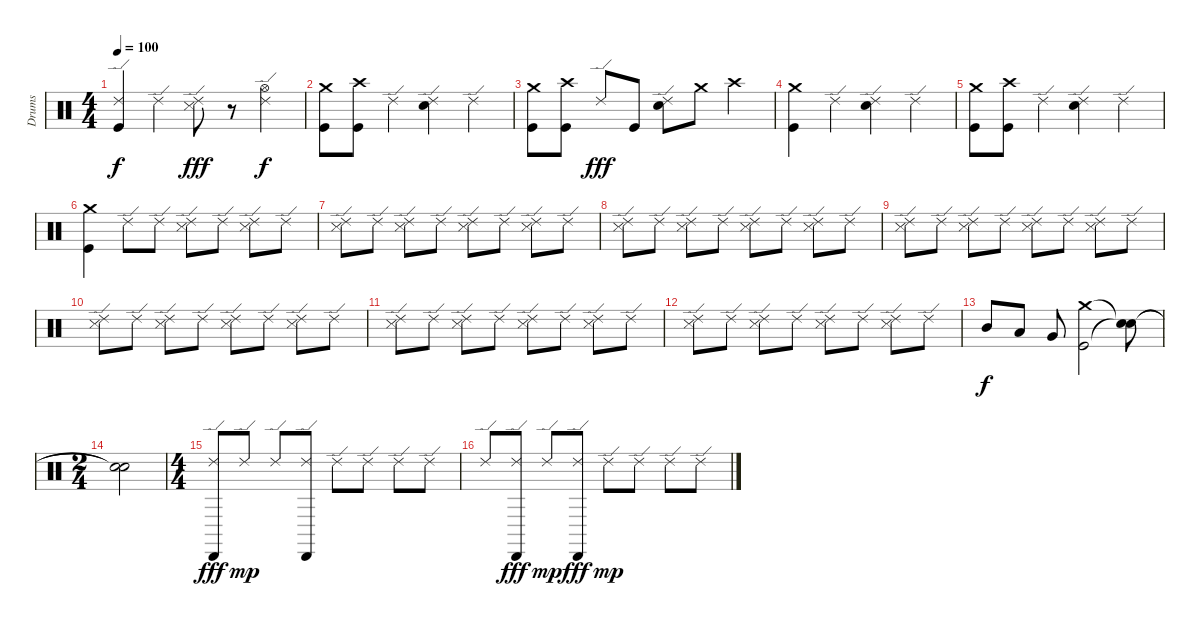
\track ("Drums" "Drums") {instrument percussion}
\staff {score}
\articulation defaults
\ts (4 4)
\tempo 100
\clef neutral
\ks c
("Kick (hit)" "Ride (edge) 2").4{dy f} "Ride (edge) 2".4 ("Snare (side stick) 3" "Ride (edge) 2").8{dy fff} r.8 ("Hi-Hat (open)" "Ride (edge) 2").4{dy f} |
("Kick (hit)" "Crash medium (hit)").8 ("Kick (hit)" "Crash high (hit)").8 "Ride (edge) 2".4 ("Electric Snare (hit)" "Ride (edge) 2").4 "Ride (edge) 2".4 |
("Kick (hit)" "Crash medium (hit)").8 ("Kick (hit)" "Crash high (hit)").8 "Ride (edge) 2".8{dy fff} "Kick (hit)".8 ("Ride (edge) 2" "Electric Snare (hit)").8 "Crash medium (hit)".8 "Crash high (hit)".4 |
("Kick (hit)" "Crash medium (hit)").4 "Ride (edge) 2".4 ("Electric Snare (hit)" "Ride (edge) 2").4 "Ride (edge) 2".4 |
("Kick (hit)" "Crash medium (hit)").8 ("Kick (hit)" "Crash high (hit)").8 "Ride (edge) 2".4 ("Electric Snare (hit)" "Ride (edge) 2").4 "Ride (edge) 2".4 |
("Kick (hit)" "Crash medium (hit)").4 "Ride (edge) 2".8 "Ride (edge) 2".8 ("Ride (edge) 2" "Snare (side stick) 3").8 "Ride (edge) 2".8 ("Snare (side stick) 3" "Ride (edge) 2").8 "Ride (edge) 2".8 |
("Ride (edge) 2" "Snare (side stick) 3").8 "Ride (edge) 2".8 ("Ride (edge) 2" "Snare (side stick) 3").8 "Ride (edge) 2".8 ("Ride (edge) 2" "Snare (side stick) 3").8 "Ride (edge) 2".8 ("Ride (edge) 2" "Snare (side stick) 3").8 "Ride (edge) 2".8 |
("Ride (edge) 2" "Snare (side stick) 3").8 "Ride (edge) 2".8 ("Ride (edge) 2" "Snare (side stick) 3").8 "Ride (edge) 2".8 ("Ride (edge) 2" "Snare (side stick) 3").8 "Ride (edge) 2".8 ("Ride (edge) 2" "Snare (side stick) 3").8 "Ride (edge) 2".8 |
("Ride (edge) 2" "Snare (side stick) 3").8 "Ride (edge) 2".8 ("Ride (edge) 2" "Snare (side stick) 3").8 "Ride (edge) 2".8 ("Ride (edge) 2" "Snare (side stick) 3").8 "Ride (edge) 2".8 ("Ride (edge) 2" "Snare (side stick) 3").8 "Ride (edge) 2".8 |
("Ride (edge) 2" "Snare (side stick) 3").8 "Ride (edge) 2".8 ("Ride (edge) 2" "Snare (side stick) 3").8 "Ride (edge) 2".8 ("Ride (edge) 2" "Snare (side stick) 3").8 "Ride (edge) 2".8 ("Ride (edge) 2" "Snare (side stick) 3").8 "Ride (edge) 2".8 |
("Ride (edge) 2" "Snare (side stick) 3").8 "Ride (edge) 2".8 ("Ride (edge) 2" "Snare (side stick) 3").8 "Ride (edge) 2".8 ("Ride (edge) 2" "Snare (side stick) 3").8 "Ride (edge) 2".8 ("Ride (edge) 2" "Snare (side stick) 3").8 "Ride (edge) 2".8 |
("Ride (edge) 2" "Snare (side stick) 3").8 "Ride (edge) 2".8 ("Ride (edge) 2" "Snare (side stick) 3").8 "Ride (edge) 2".8 ("Ride (edge) 2" "Snare (side stick) 3").8 "Ride (edge) 2".8 ("Ride (edge) 2" "Snare (side stick) 3").8 "Ride (edge) 2".8 |
"Mid Tom (hit)".8{dy f} "Low Tom (hit)".8 "Very Low Tom (hit)".8 ("Crash medium (hit)" "Kick (hit)").2 ("Snare (hit)"{t} "Snare (hit)"{t}).8 |
\ts (2 4)
("Snare (hit)"{t} "Snare (hit)"{t}).2 |
\ts (4 4)
("Ride (edge) 2" "Cabasa (hit)").8{dy fff} "Ride (edge) 2".8{dy mp} "Ride (edge) 2".8 ("Cabasa (hit)" "Ride (edge) 2").8 "Ride (edge) 2".8 "Ride (edge) 2".8 "Ride (edge) 2".8 "Ride (edge) 2".8 |
"Ride (edge) 2".8 ("Ride (edge) 2" "Cabasa (hit)").8{dy fff} "Ride (edge) 2".8{dy mp} ("Ride (edge) 2" "Cabasa (hit)").8{dy fff} "Ride (edge) 2".8{dy mp} "Ride (edge) 2".8 "Ride (edge) 2".8 "Ride (edge) 2".8
